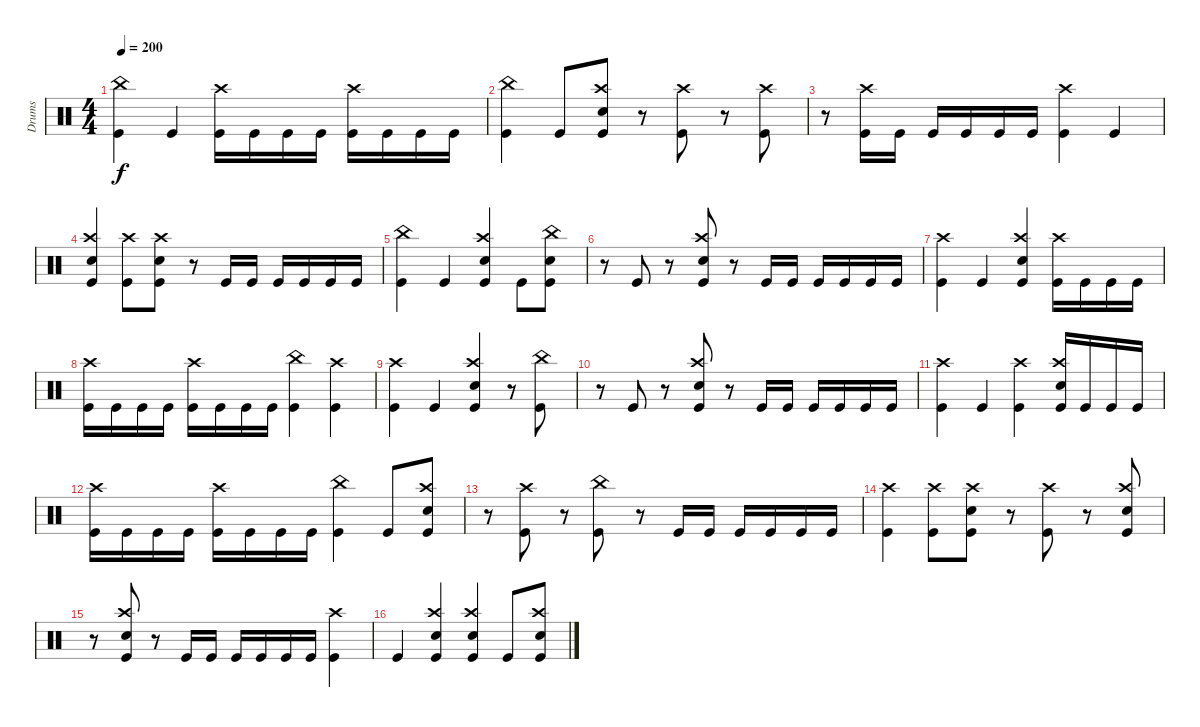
\track ("Drums" "Drums") {instrument percussion}
\staff {score}
\articulation defaults
\ts (4 4)
\tempo 200
\clef neutral
\ks c
("China (hit)" "Kick (hit)").4{dy f} "Kick (hit)".4 ("Crash high (hit)" "Kick (hit)").16 "Kick (hit)".16 "Kick (hit)".16 "Kick (hit)".16 ("Crash high (hit)" "Kick (hit)").16 "Kick (hit)".16 "Kick (hit)".16 "Kick (hit)".16 |
("China (hit)" "Kick (hit)").4 "Kick (hit)".8 ("Crash high (hit)" "Snare (hit) 2" "Kick (hit)").8 r.8 ("Crash high (hit)" "Kick (hit)").8 r.8 ("Crash high (hit)" "Kick (hit)").8 |
r.8 ("Crash high (hit)" "Kick (hit)").16 "Kick (hit)".16 "Kick (hit)".16 "Kick (hit)".16 "Kick (hit)".16 "Kick (hit)".16 ("Crash high (hit)" "Kick (hit)").4 "Kick (hit)".4 |
("Crash high (hit)" "Snare (hit) 2" "Kick (hit)").4 ("Crash high (hit)" "Kick (hit)").8 ("Crash high (hit)" "Snare (hit) 2" "Kick (hit)").8 r.8 "Kick (hit)".16 "Kick (hit)".16 "Kick (hit)".16 "Kick (hit)".16 "Kick (hit)".16 "Kick (hit)".16 |
("China (hit)" "Kick (hit)").4 "Kick (hit)".4 ("Crash high (hit)" "Snare (hit) 2" "Kick (hit)").4 "Kick (hit)".8 ("China (hit)" "Snare (hit) 2" "Kick (hit)").8 |
r.8 "Kick (hit)".8 r.8 ("Crash high (hit)" "Snare (hit) 2" "Kick (hit)").8 r.8 "Kick (hit)".16 "Kick (hit)".16 "Kick (hit)".16 "Kick (hit)".16 "Kick (hit)".16 "Kick (hit)".16 |
("Crash high (hit)" "Kick (hit)").4 "Kick (hit)".4 ("Crash high (hit)" "Snare (hit) 2" "Kick (hit)").4 ("Crash high (hit)" "Kick (hit)").16 "Kick (hit)".16 "Kick (hit)".16 "Kick (hit)".16 |
("Crash high (hit)" "Kick (hit)").16 "Kick (hit)".16 "Kick (hit)".16 "Kick (hit)".16 ("Crash high (hit)" "Kick (hit)").16 "Kick (hit)".16 "Kick (hit)".16 "Kick (hit)".16 ("China (hit)" "Kick (hit)").4 ("Crash high (hit)" "Kick (hit)").4 |
("Crash high (hit)" "Kick (hit)").4 "Kick (hit)".4 ("Crash high (hit)" "Snare (hit) 2" "Kick (hit)").4 r.8 ("China (hit)" "Kick (hit)").8 |
r.8 "Kick (hit)".8 r.8 ("Crash high (hit)" "Snare (hit) 2" "Kick (hit)").8 r.8 "Kick (hit)".16 "Kick (hit)".16 "Kick (hit)".16 "Kick (hit)".16 "Kick (hit)".16 "Kick (hit)".16 |
("Crash high (hit)" "Kick (hit)").4 "Kick (hit)".4 ("Crash high (hit)" "Kick (hit)").4 ("Crash high (hit)" "Snare (hit) 2" "Kick (hit)").16 "Kick (hit)".16 "Kick (hit)".16 "Kick (hit)".16 |
("Crash high (hit)" "Kick (hit)").16 "Kick (hit)".16 "Kick (hit)".16 "Kick (hit)".16 ("Crash high (hit)" "Kick (hit)").16 "Kick (hit)".16 "Kick (hit)".16 "Kick (hit)".16 ("China (hit)" "Kick (hit)").4 "Kick (hit)".8 ("Crash high (hit)" "Snare (hit) 2" "Kick (hit)").8 |
r.8 ("Crash high (hit)" "Kick (hit)").8 r.8 ("China (hit)" "Kick (hit)").8 r.8 "Kick (hit)".16 "Kick (hit)".16 "Kick (hit)".16 "Kick (hit)".16 "Kick (hit)".16 "Kick (hit)".16 |
("Crash high (hit)" "Kick (hit)").4 ("Crash high (hit)" "Kick (hit)").8 ("Crash high (hit)" "Snare (hit) 2" "Kick (hit)").8 r.8 ("Crash high (hit)" "Kick (hit)").8 r.8 ("Crash high (hit)" "Snare (hit) 2" "Kick (hit)").8 |
r.8 ("Crash high (hit)" "Snare (hit) 2" "Kick (hit)").8 r.8 "Kick (hit)".16 "Kick (hit)".16 "Kick (hit)".16 "Kick (hit)".16 "Kick (hit)".16 "Kick (hit)".16 ("Crash high (hit)" "Kick (hit)").4 |
"Kick (hit)".4 ("Crash high (hit)" "Snare (hit) 2" "Kick (hit)").4 ("Crash high (hit)" "Snare (hit) 2" "Kick (hit)").4 "Kick (hit)".8 ("Crash high (hit)" "Snare (hit) 2" "Kick (hit)").8
